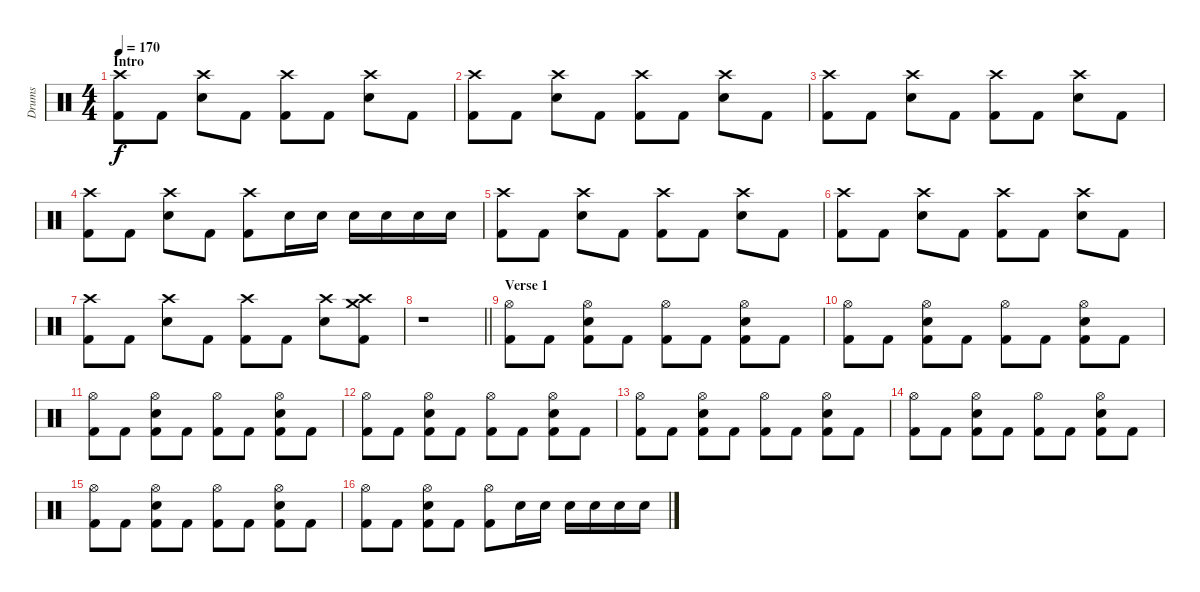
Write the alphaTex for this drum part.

\track ("Drums" "Drums") {instrument percussion}
\staff {score}
\articulation defaults
\ts (4 4)
\section ("" "Intro")
\tempo 170
\clef neutral
\ks c
("Crash high (hit)" "Kick (hit) 2").8{dy f} "Kick (hit) 2".8 ("Crash high (hit)" "Snare (hit) 2").8 "Kick (hit) 2".8 ("Crash high (hit)" "Kick (hit) 2").8 "Kick (hit) 2".8 ("Crash high (hit)" "Snare (hit) 2").8 "Kick (hit) 2".8 |
("Crash high (hit)" "Kick (hit) 2").8 "Kick (hit) 2".8 ("Crash high (hit)" "Snare (hit) 2").8 "Kick (hit) 2".8 ("Crash high (hit)" "Kick (hit) 2").8 "Kick (hit) 2".8 ("Crash high (hit)" "Snare (hit) 2").8 "Kick (hit) 2".8 |
("Crash high (hit)" "Kick (hit) 2").8 "Kick (hit) 2".8 ("Crash high (hit)" "Snare (hit) 2").8 "Kick (hit) 2".8 ("Crash high (hit)" "Kick (hit) 2").8 "Kick (hit) 2".8 ("Crash high (hit)" "Snare (hit) 2").8 "Kick (hit) 2".8 |
("Crash high (hit)" "Kick (hit) 2").8 "Kick (hit) 2".8 ("Crash high (hit)" "Snare (hit) 2").8 "Kick (hit) 2".8 ("Crash high (hit)" "Kick (hit) 2").8 "Snare (hit) 2".16 "Snare (hit) 2".16 "Snare (hit) 2".16 "Snare (hit) 2".16 "Snare (hit) 2".16 "Snare (hit) 2".16 |
("Crash high (hit)" "Kick (hit) 2").8 "Kick (hit) 2".8 ("Crash high (hit)" "Snare (hit) 2").8 "Kick (hit) 2".8 ("Crash high (hit)" "Kick (hit) 2").8 "Kick (hit) 2".8 ("Crash high (hit)" "Snare (hit) 2").8 "Kick (hit) 2".8 |
("Crash high (hit)" "Kick (hit) 2").8 "Kick (hit) 2".8 ("Crash high (hit)" "Snare (hit) 2").8 "Kick (hit) 2".8 ("Crash high (hit)" "Kick (hit) 2").8 "Kick (hit) 2".8 ("Crash high (hit)" "Snare (hit) 2").8 "Kick (hit) 2".8 |
("Crash high (hit)" "Kick (hit) 2").8 "Kick (hit) 2".8 ("Crash high (hit)" "Snare (hit) 2").8 "Kick (hit) 2".8 ("Crash high (hit)" "Kick (hit) 2").8 "Kick (hit) 2".8 ("Crash high (hit)" "Snare (hit) 2").8 ("Crash high (hit)" "Crash medium (hit)" "Kick (hit) 2").8 |
\barLineRight lightlight
r.1 |
\section ("" "Verse 1")
("Hi-Hat (open)" "Kick (hit) 2").8 "Kick (hit) 2".8 ("Hi-Hat (open)" "Snare (hit) 2" "Kick (hit) 2").8 "Kick (hit) 2".8 ("Hi-Hat (open)" "Kick (hit) 2").8 "Kick (hit) 2".8 ("Hi-Hat (open)" "Snare (hit) 2" "Kick (hit) 2").8 "Kick (hit) 2".8 |
("Hi-Hat (open)" "Kick (hit) 2").8 "Kick (hit) 2".8 ("Hi-Hat (open)" "Snare (hit) 2" "Kick (hit) 2").8 "Kick (hit) 2".8 ("Hi-Hat (open)" "Kick (hit) 2").8 "Kick (hit) 2".8 ("Hi-Hat (open)" "Snare (hit) 2" "Kick (hit) 2").8 "Kick (hit) 2".8 |
("Hi-Hat (open)" "Kick (hit) 2").8 "Kick (hit) 2".8 ("Hi-Hat (open)" "Snare (hit) 2" "Kick (hit) 2").8 "Kick (hit) 2".8 ("Hi-Hat (open)" "Kick (hit) 2").8 "Kick (hit) 2".8 ("Hi-Hat (open)" "Snare (hit) 2" "Kick (hit) 2").8 "Kick (hit) 2".8 |
("Hi-Hat (open)" "Kick (hit) 2").8 "Kick (hit) 2".8 ("Hi-Hat (open)" "Snare (hit) 2" "Kick (hit) 2").8 "Kick (hit) 2".8 ("Hi-Hat (open)" "Kick (hit) 2").8 "Kick (hit) 2".8 ("Hi-Hat (open)" "Snare (hit) 2" "Kick (hit) 2").8 "Kick (hit) 2".8 |
("Hi-Hat (open)" "Kick (hit) 2").8 "Kick (hit) 2".8 ("Hi-Hat (open)" "Snare (hit) 2" "Kick (hit) 2").8 "Kick (hit) 2".8 ("Hi-Hat (open)" "Kick (hit) 2").8 "Kick (hit) 2".8 ("Hi-Hat (open)" "Snare (hit) 2" "Kick (hit) 2").8 "Kick (hit) 2".8 |
("Hi-Hat (open)" "Kick (hit) 2").8 "Kick (hit) 2".8 ("Hi-Hat (open)" "Snare (hit) 2" "Kick (hit) 2").8 "Kick (hit) 2".8 ("Hi-Hat (open)" "Kick (hit) 2").8 "Kick (hit) 2".8 ("Hi-Hat (open)" "Snare (hit) 2" "Kick (hit) 2").8 "Kick (hit) 2".8 |
("Hi-Hat (open)" "Kick (hit) 2").8 "Kick (hit) 2".8 ("Hi-Hat (open)" "Snare (hit) 2" "Kick (hit) 2").8 "Kick (hit) 2".8 ("Hi-Hat (open)" "Kick (hit) 2").8 "Kick (hit) 2".8 ("Hi-Hat (open)" "Snare (hit) 2" "Kick (hit) 2").8 "Kick (hit) 2".8 |
("Hi-Hat (open)" "Kick (hit) 2").8 "Kick (hit) 2".8 ("Hi-Hat (open)" "Snare (hit) 2" "Kick (hit) 2").8 "Kick (hit) 2".8 ("Hi-Hat (open)" "Kick (hit) 2").8 "Snare (hit) 2".16 "Snare (hit) 2".16 "Snare (hit) 2".16 "Snare (hit) 2".16 "Snare (hit) 2".16 "Snare (hit) 2".16
